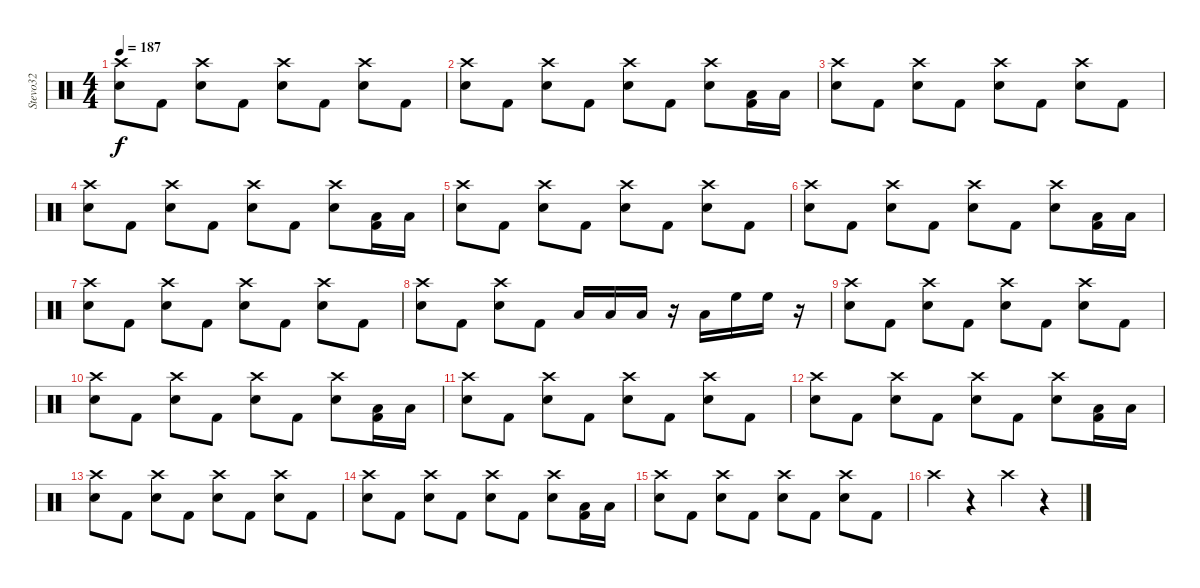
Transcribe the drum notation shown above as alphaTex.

\track ("Stevo32" "Stevo32") {instrument percussion}
\staff {score}
\articulation defaults
\ts (4 4)
\tempo 187
\clef neutral
\ks c
("Crash high (hit)" "Snare (hit) 2").8{dy f} "Kick (hit) 2".8 ("Crash high (hit)" "Snare (hit) 2").8 "Kick (hit) 2".8 ("Crash high (hit)" "Snare (hit) 2").8 "Kick (hit) 2".8 ("Crash high (hit)" "Snare (hit) 2").8 "Kick (hit) 2".8 |
("Crash high (hit)" "Snare (hit) 2").8 "Kick (hit) 2".8 ("Crash high (hit)" "Snare (hit) 2").8 "Kick (hit) 2".8 ("Crash high (hit)" "Snare (hit) 2").8 "Kick (hit) 2".8 ("Crash high (hit)" "Snare (hit) 2").8 ("Kick (hit) 2" "Low Floor Tom (hit)").16 "Low Floor Tom (hit)".16 |
("Crash high (hit)" "Snare (hit) 2").8 "Kick (hit) 2".8 ("Crash high (hit)" "Snare (hit) 2").8 "Kick (hit) 2".8 ("Crash high (hit)" "Snare (hit) 2").8 "Kick (hit) 2".8 ("Crash high (hit)" "Snare (hit) 2").8 "Kick (hit) 2".8 |
("Crash high (hit)" "Snare (hit) 2").8 "Kick (hit) 2".8 ("Crash high (hit)" "Snare (hit) 2").8 "Kick (hit) 2".8 ("Crash high (hit)" "Snare (hit) 2").8 "Kick (hit) 2".8 ("Crash high (hit)" "Snare (hit) 2").8 ("Kick (hit) 2" "Low Floor Tom (hit)").16 "Low Floor Tom (hit)".16 |
("Crash high (hit)" "Snare (hit) 2").8 "Kick (hit) 2".8 ("Crash high (hit)" "Snare (hit) 2").8 "Kick (hit) 2".8 ("Crash high (hit)" "Snare (hit) 2").8 "Kick (hit) 2".8 ("Crash high (hit)" "Snare (hit) 2").8 "Kick (hit) 2".8 |
("Crash high (hit)" "Snare (hit) 2").8 "Kick (hit) 2".8 ("Crash high (hit)" "Snare (hit) 2").8 "Kick (hit) 2".8 ("Crash high (hit)" "Snare (hit) 2").8 "Kick (hit) 2".8 ("Crash high (hit)" "Snare (hit) 2").8 ("Kick (hit) 2" "Low Floor Tom (hit)").16 "Low Floor Tom (hit)".16 |
("Crash high (hit)" "Snare (hit) 2").8 "Kick (hit) 2".8 ("Crash high (hit)" "Snare (hit) 2").8 "Kick (hit) 2".8 ("Crash high (hit)" "Snare (hit) 2").8 "Kick (hit) 2".8 ("Crash high (hit)" "Snare (hit) 2").8 "Kick (hit) 2".8 |
("Crash high (hit)" "Snare (hit) 2").8 "Kick (hit) 2".8 ("Crash high (hit)" "Snare (hit) 2").8 "Kick (hit) 2".8 "Low Floor Tom (hit)".16 "Low Floor Tom (hit)".16 "Low Tom (hit)".16 r.16 "Low Tom (hit)".16 "High Floor Tom (hit)".16 "High Floor Tom (hit)".16 r.16 |
("Crash high (hit)" "Snare (hit) 2").8 "Kick (hit) 2".8 ("Crash high (hit)" "Snare (hit) 2").8 "Kick (hit) 2".8 ("Crash high (hit)" "Snare (hit) 2").8 "Kick (hit) 2".8 ("Crash high (hit)" "Snare (hit) 2").8 "Kick (hit) 2".8 |
("Crash high (hit)" "Snare (hit) 2").8 "Kick (hit) 2".8 ("Crash high (hit)" "Snare (hit) 2").8 "Kick (hit) 2".8 ("Crash high (hit)" "Snare (hit) 2").8 "Kick (hit) 2".8 ("Crash high (hit)" "Snare (hit) 2").8 ("Kick (hit) 2" "Low Floor Tom (hit)").16 "Low Floor Tom (hit)".16 |
("Crash high (hit)" "Snare (hit) 2").8 "Kick (hit) 2".8 ("Crash high (hit)" "Snare (hit) 2").8 "Kick (hit) 2".8 ("Crash high (hit)" "Snare (hit) 2").8 "Kick (hit) 2".8 ("Crash high (hit)" "Snare (hit) 2").8 "Kick (hit) 2".8 |
("Crash high (hit)" "Snare (hit) 2").8 "Kick (hit) 2".8 ("Crash high (hit)" "Snare (hit) 2").8 "Kick (hit) 2".8 ("Crash high (hit)" "Snare (hit) 2").8 "Kick (hit) 2".8 ("Crash high (hit)" "Snare (hit) 2").8 ("Kick (hit) 2" "Low Floor Tom (hit)").16 "Low Floor Tom (hit)".16 |
("Crash high (hit)" "Snare (hit) 2").8 "Kick (hit) 2".8 ("Crash high (hit)" "Snare (hit) 2").8 "Kick (hit) 2".8 ("Crash high (hit)" "Snare (hit) 2").8 "Kick (hit) 2".8 ("Crash high (hit)" "Snare (hit) 2").8 "Kick (hit) 2".8 |
("Crash high (hit)" "Snare (hit) 2").8 "Kick (hit) 2".8 ("Crash high (hit)" "Snare (hit) 2").8 "Kick (hit) 2".8 ("Crash high (hit)" "Snare (hit) 2").8 "Kick (hit) 2".8 ("Crash high (hit)" "Snare (hit) 2").8 ("Kick (hit) 2" "Low Floor Tom (hit)").16 "Low Floor Tom (hit)".16 |
("Crash high (hit)" "Snare (hit) 2").8 "Kick (hit) 2".8 ("Crash high (hit)" "Snare (hit) 2").8 "Kick (hit) 2".8 ("Crash high (hit)" "Snare (hit) 2").8 "Kick (hit) 2".8 ("Crash high (hit)" "Snare (hit) 2").8 "Kick (hit) 2".8 |
"Crash high (hit)".4 r.4 "Crash high (hit)".4 r.4
